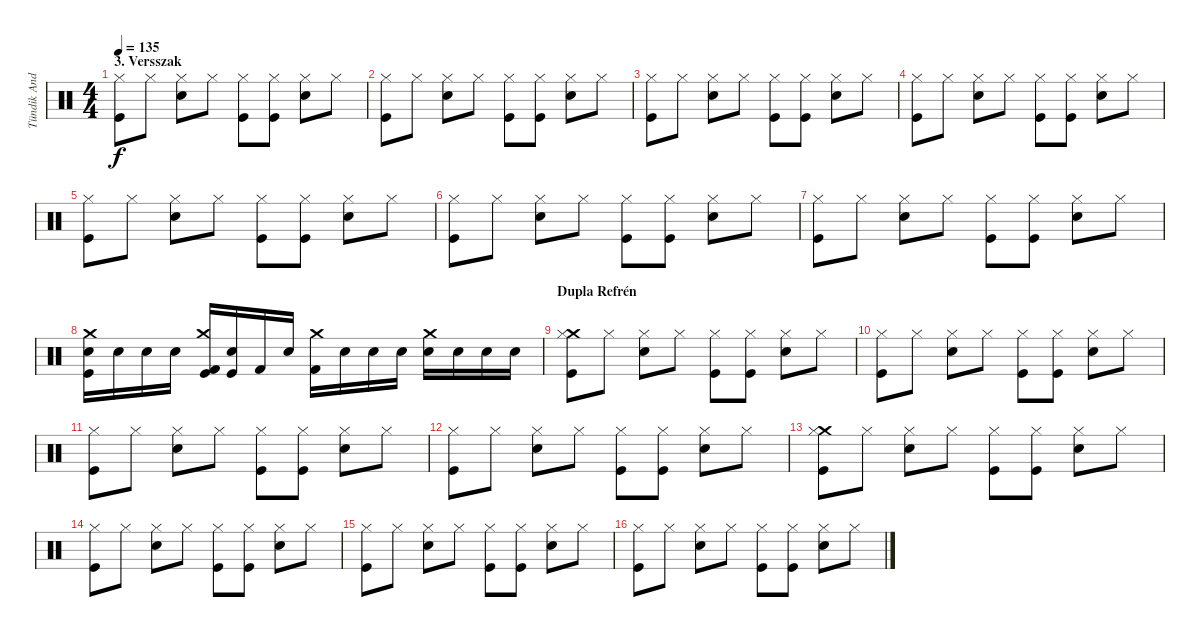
\track ("Tündik András - Dob" "Tündik And") {instrument percussion}
\staff {score}
\articulation defaults
\ts (4 4)
\section ("" "3. Versszak")
\tempo 135
\clef neutral
\ks c
("Hi-Hat (closed)" "Kick (hit)").8{dy f} "Hi-Hat (closed)".8 ("Snare (hit) 2" "Hi-Hat (closed)").8 "Hi-Hat (closed)".8 ("Hi-Hat (closed)" "Kick (hit)").8 ("Hi-Hat (closed)" "Kick (hit)").8 ("Snare (hit) 2" "Hi-Hat (closed)").8 "Hi-Hat (closed)".8 |
("Hi-Hat (closed)" "Kick (hit)").8 "Hi-Hat (closed)".8 ("Snare (hit) 2" "Hi-Hat (closed)").8 "Hi-Hat (closed)".8 ("Hi-Hat (closed)" "Kick (hit)").8 ("Hi-Hat (closed)" "Kick (hit)").8 ("Snare (hit) 2" "Hi-Hat (closed)").8 "Hi-Hat (closed)".8 |
("Hi-Hat (closed)" "Kick (hit)").8 "Hi-Hat (closed)".8 ("Snare (hit) 2" "Hi-Hat (closed)").8 "Hi-Hat (closed)".8 ("Hi-Hat (closed)" "Kick (hit)").8 ("Hi-Hat (closed)" "Kick (hit)").8 ("Snare (hit) 2" "Hi-Hat (closed)").8 "Hi-Hat (closed)".8 |
("Hi-Hat (closed)" "Kick (hit)").8 "Hi-Hat (closed)".8 ("Snare (hit) 2" "Hi-Hat (closed)").8 "Hi-Hat (closed)".8 ("Hi-Hat (closed)" "Kick (hit)").8 ("Hi-Hat (closed)" "Kick (hit)").8 ("Snare (hit) 2" "Hi-Hat (closed)").8 "Hi-Hat (closed)".8 |
("Hi-Hat (closed)" "Kick (hit)").8 "Hi-Hat (closed)".8 ("Snare (hit) 2" "Hi-Hat (closed)").8 "Hi-Hat (closed)".8 ("Hi-Hat (closed)" "Kick (hit)").8 ("Hi-Hat (closed)" "Kick (hit)").8 ("Snare (hit) 2" "Hi-Hat (closed)").8 "Hi-Hat (closed)".8 |
("Hi-Hat (closed)" "Kick (hit)").8 "Hi-Hat (closed)".8 ("Snare (hit) 2" "Hi-Hat (closed)").8 "Hi-Hat (closed)".8 ("Hi-Hat (closed)" "Kick (hit)").8 ("Hi-Hat (closed)" "Kick (hit)").8 ("Snare (hit) 2" "Hi-Hat (closed)").8 "Hi-Hat (closed)".8 |
("Hi-Hat (closed)" "Kick (hit)").8 "Hi-Hat (closed)".8 ("Snare (hit) 2" "Hi-Hat (closed)").8 "Hi-Hat (closed)".8 ("Hi-Hat (closed)" "Kick (hit)").8 ("Hi-Hat (closed)" "Kick (hit)").8 ("Snare (hit) 2" "Hi-Hat (closed)").8 "Hi-Hat (closed)".8 |
("Crash medium (hit)" "Snare (hit) 2" "Kick (hit)").16 "Snare (hit) 2".16 "Snare (hit) 2".16 "Snare (hit) 2".16 ("Crash medium (hit)" "Kick (hit) 2" "Kick (hit)").16 ("Snare (hit) 2" "Kick (hit)").16 "Kick (hit) 2".16 "Snare (hit) 2".16 ("Crash medium (hit)" "Kick (hit) 2").16 "Snare (hit) 2".16 "Snare (hit) 2".16 "Snare (hit) 2".16 ("Crash medium (hit)" "Snare (hit) 2").16 "Snare (hit) 2".16 "Snare (hit) 2".16 "Snare (hit) 2".16 |
\section ("" "Dupla Refrén")
("Crash medium (hit)" "Hi-Hat (closed)" "Kick (hit)").8 "Hi-Hat (closed)".8 ("Snare (hit) 2" "Hi-Hat (closed)").8 "Hi-Hat (closed)".8 ("Hi-Hat (closed)" "Kick (hit)").8 ("Hi-Hat (closed)" "Kick (hit)").8 ("Snare (hit) 2" "Hi-Hat (closed)").8 "Hi-Hat (closed)".8 |
("Hi-Hat (closed)" "Kick (hit)").8 "Hi-Hat (closed)".8 ("Snare (hit) 2" "Hi-Hat (closed)").8 "Hi-Hat (closed)".8 ("Hi-Hat (closed)" "Kick (hit)").8 ("Hi-Hat (closed)" "Kick (hit)").8 ("Snare (hit) 2" "Hi-Hat (closed)").8 "Hi-Hat (closed)".8 |
("Hi-Hat (closed)" "Kick (hit)").8 "Hi-Hat (closed)".8 ("Snare (hit) 2" "Hi-Hat (closed)").8 "Hi-Hat (closed)".8 ("Hi-Hat (closed)" "Kick (hit)").8 ("Hi-Hat (closed)" "Kick (hit)").8 ("Snare (hit) 2" "Hi-Hat (closed)").8 "Hi-Hat (closed)".8 |
("Hi-Hat (closed)" "Kick (hit)").8 "Hi-Hat (closed)".8 ("Snare (hit) 2" "Hi-Hat (closed)").8 "Hi-Hat (closed)".8 ("Hi-Hat (closed)" "Kick (hit)").8 ("Hi-Hat (closed)" "Kick (hit)").8 ("Snare (hit) 2" "Hi-Hat (closed)").8 "Hi-Hat (closed)".8 |
("Crash medium (hit)" "Hi-Hat (closed)" "Kick (hit)").8 "Hi-Hat (closed)".8 ("Snare (hit) 2" "Hi-Hat (closed)").8 "Hi-Hat (closed)".8 ("Hi-Hat (closed)" "Kick (hit)").8 ("Hi-Hat (closed)" "Kick (hit)").8 ("Snare (hit) 2" "Hi-Hat (closed)").8 "Hi-Hat (closed)".8 |
("Hi-Hat (closed)" "Kick (hit)").8 "Hi-Hat (closed)".8 ("Snare (hit) 2" "Hi-Hat (closed)").8 "Hi-Hat (closed)".8 ("Hi-Hat (closed)" "Kick (hit)").8 ("Hi-Hat (closed)" "Kick (hit)").8 ("Snare (hit) 2" "Hi-Hat (closed)").8 "Hi-Hat (closed)".8 |
("Hi-Hat (closed)" "Kick (hit)").8 "Hi-Hat (closed)".8 ("Snare (hit) 2" "Hi-Hat (closed)").8 "Hi-Hat (closed)".8 ("Hi-Hat (closed)" "Kick (hit)").8 ("Hi-Hat (closed)" "Kick (hit)").8 ("Snare (hit) 2" "Hi-Hat (closed)").8 "Hi-Hat (closed)".8 |
("Hi-Hat (closed)" "Kick (hit)").8 "Hi-Hat (closed)".8 ("Snare (hit) 2" "Hi-Hat (closed)").8 "Hi-Hat (closed)".8 ("Hi-Hat (closed)" "Kick (hit)").8 ("Hi-Hat (closed)" "Kick (hit)").8 ("Snare (hit) 2" "Hi-Hat (closed)").8 "Hi-Hat (closed)".8
